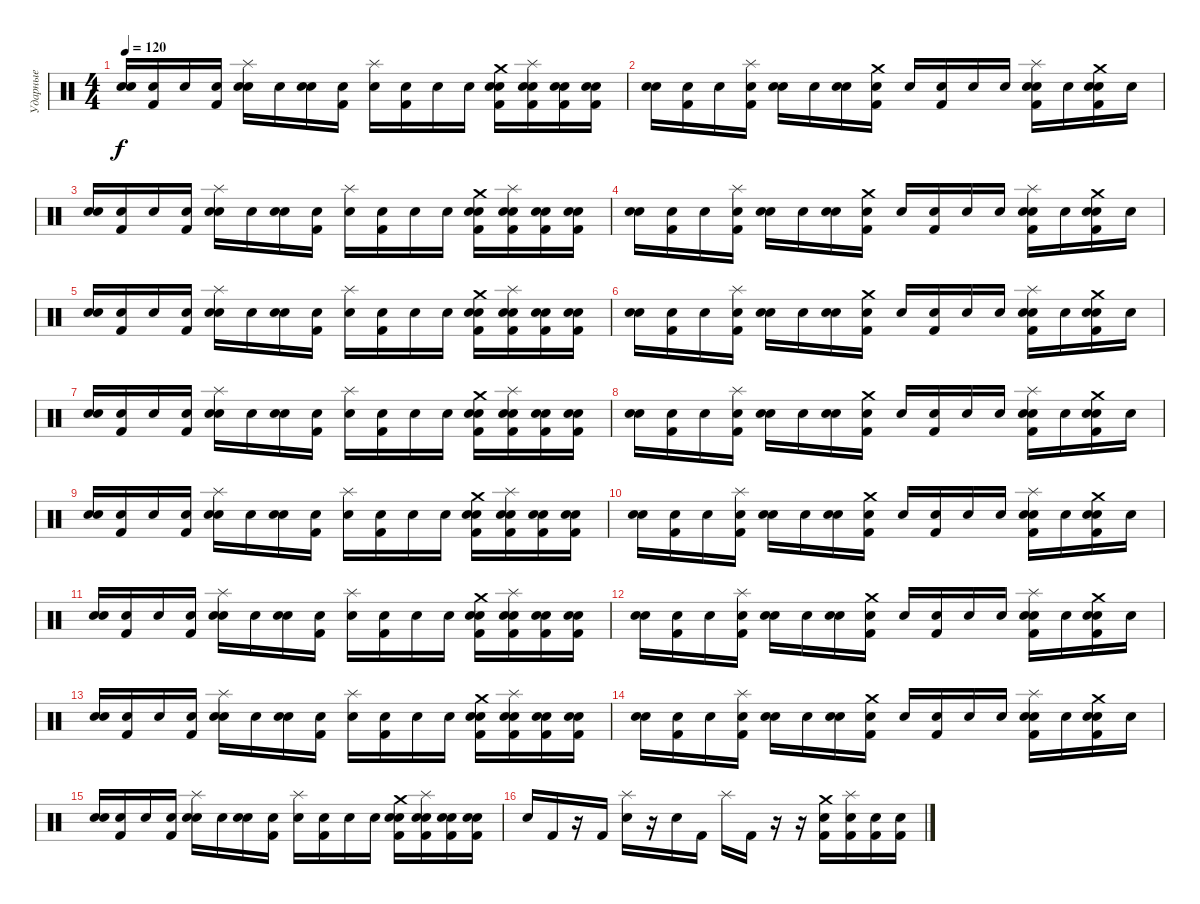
\track ("Ударные" "Ударные") {instrument percussion}
\staff {score}
\articulation defaults
\ts (4 4)
\tempo 120
\clef neutral
\ks c
("Snare (hit)" "Electric Snare (hit)").16{dy f} ("Snare (hit)" "Kick (hit) 2").16 "Snare (hit)".16 ("Snare (hit)" "Kick (hit) 2").16 ("Splash (hit)" "Snare (hit)" "Electric Snare (hit)").16 "Snare (hit)".16 ("Snare (hit)" "Electric Snare (hit)").16 ("Snare (hit)" "Kick (hit) 2").16 ("Splash (hit)" "Snare (hit)").16 ("Snare (hit)" "Kick (hit) 2").16 "Snare (hit)".16 "Snare (hit)".16 ("Crash medium (hit)" "Snare (hit)" "Electric Snare (hit)" "Kick (hit) 2").16 ("Splash (hit)" "Snare (hit)" "Electric Snare (hit)" "Kick (hit) 2").16 ("Snare (hit)" "Electric Snare (hit)" "Kick (hit) 2").16 ("Snare (hit)" "Electric Snare (hit)" "Kick (hit) 2").16 |
("Snare (hit)" "Electric Snare (hit)").16 ("Snare (hit)" "Kick (hit) 2").16 "Snare (hit)".16 ("Splash (hit)" "Snare (hit)" "Kick (hit) 2").16 ("Snare (hit)" "Electric Snare (hit)").16 "Snare (hit)".16 ("Snare (hit)" "Electric Snare (hit)").16 ("Crash medium (hit)" "Snare (hit)" "Kick (hit) 2").16 "Snare (hit)".16 ("Snare (hit)" "Kick (hit) 2").16 "Snare (hit)".16 "Snare (hit)".16 ("Splash (hit)" "Snare (hit)" "Electric Snare (hit)" "Kick (hit) 2").16 "Snare (hit)".16 ("Crash medium (hit)" "Snare (hit)" "Electric Snare (hit)" "Kick (hit) 2").16 "Snare (hit)".16 |
("Snare (hit)" "Electric Snare (hit)").16 ("Snare (hit)" "Kick (hit) 2").16 "Snare (hit)".16 ("Snare (hit)" "Kick (hit) 2").16 ("Splash (hit)" "Snare (hit)" "Electric Snare (hit)").16 "Snare (hit)".16 ("Snare (hit)" "Electric Snare (hit)").16 ("Snare (hit)" "Kick (hit) 2").16 ("Splash (hit)" "Snare (hit)").16 ("Snare (hit)" "Kick (hit) 2").16 "Snare (hit)".16 "Snare (hit)".16 ("Crash medium (hit)" "Snare (hit)" "Electric Snare (hit)" "Kick (hit) 2").16 ("Splash (hit)" "Snare (hit)" "Electric Snare (hit)" "Kick (hit) 2").16 ("Snare (hit)" "Electric Snare (hit)" "Kick (hit) 2").16 ("Snare (hit)" "Electric Snare (hit)" "Kick (hit) 2").16 |
("Snare (hit)" "Electric Snare (hit)").16 ("Snare (hit)" "Kick (hit) 2").16 "Snare (hit)".16 ("Splash (hit)" "Snare (hit)" "Kick (hit) 2").16 ("Snare (hit)" "Electric Snare (hit)").16 "Snare (hit)".16 ("Snare (hit)" "Electric Snare (hit)").16 ("Crash medium (hit)" "Snare (hit)" "Kick (hit) 2").16 "Snare (hit)".16 ("Snare (hit)" "Kick (hit) 2").16 "Snare (hit)".16 "Snare (hit)".16 ("Splash (hit)" "Snare (hit)" "Electric Snare (hit)" "Kick (hit) 2").16 "Snare (hit)".16 ("Crash medium (hit)" "Snare (hit)" "Electric Snare (hit)" "Kick (hit) 2").16 "Snare (hit)".16 |
("Snare (hit)" "Electric Snare (hit)").16 ("Snare (hit)" "Kick (hit) 2").16 "Snare (hit)".16 ("Snare (hit)" "Kick (hit) 2").16 ("Splash (hit)" "Snare (hit)" "Electric Snare (hit)").16 "Snare (hit)".16 ("Snare (hit)" "Electric Snare (hit)").16 ("Snare (hit)" "Kick (hit) 2").16 ("Splash (hit)" "Snare (hit)").16 ("Snare (hit)" "Kick (hit) 2").16 "Snare (hit)".16 "Snare (hit)".16 ("Crash medium (hit)" "Snare (hit)" "Electric Snare (hit)" "Kick (hit) 2").16 ("Splash (hit)" "Snare (hit)" "Electric Snare (hit)" "Kick (hit) 2").16 ("Snare (hit)" "Electric Snare (hit)" "Kick (hit) 2").16 ("Snare (hit)" "Electric Snare (hit)" "Kick (hit) 2").16 |
("Snare (hit)" "Electric Snare (hit)").16 ("Snare (hit)" "Kick (hit) 2").16 "Snare (hit)".16 ("Splash (hit)" "Snare (hit)" "Kick (hit) 2").16 ("Snare (hit)" "Electric Snare (hit)").16 "Snare (hit)".16 ("Snare (hit)" "Electric Snare (hit)").16 ("Crash medium (hit)" "Snare (hit)" "Kick (hit) 2").16 "Snare (hit)".16 ("Snare (hit)" "Kick (hit) 2").16 "Snare (hit)".16 "Snare (hit)".16 ("Splash (hit)" "Snare (hit)" "Electric Snare (hit)" "Kick (hit) 2").16 "Snare (hit)".16 ("Crash medium (hit)" "Snare (hit)" "Electric Snare (hit)" "Kick (hit) 2").16 "Snare (hit)".16 |
("Snare (hit)" "Electric Snare (hit)").16 ("Snare (hit)" "Kick (hit) 2").16 "Snare (hit)".16 ("Snare (hit)" "Kick (hit) 2").16 ("Splash (hit)" "Snare (hit)" "Electric Snare (hit)").16 "Snare (hit)".16 ("Snare (hit)" "Electric Snare (hit)").16 ("Snare (hit)" "Kick (hit) 2").16 ("Splash (hit)" "Snare (hit)").16 ("Snare (hit)" "Kick (hit) 2").16 "Snare (hit)".16 "Snare (hit)".16 ("Crash medium (hit)" "Snare (hit)" "Electric Snare (hit)" "Kick (hit) 2").16 ("Splash (hit)" "Snare (hit)" "Electric Snare (hit)" "Kick (hit) 2").16 ("Snare (hit)" "Electric Snare (hit)" "Kick (hit) 2").16 ("Snare (hit)" "Electric Snare (hit)" "Kick (hit) 2").16 |
("Snare (hit)" "Electric Snare (hit)").16 ("Snare (hit)" "Kick (hit) 2").16 "Snare (hit)".16 ("Splash (hit)" "Snare (hit)" "Kick (hit) 2").16 ("Snare (hit)" "Electric Snare (hit)").16 "Snare (hit)".16 ("Snare (hit)" "Electric Snare (hit)").16 ("Crash medium (hit)" "Snare (hit)" "Kick (hit) 2").16 "Snare (hit)".16 ("Snare (hit)" "Kick (hit) 2").16 "Snare (hit)".16 "Snare (hit)".16 ("Splash (hit)" "Snare (hit)" "Electric Snare (hit)" "Kick (hit) 2").16 "Snare (hit)".16 ("Crash medium (hit)" "Snare (hit)" "Electric Snare (hit)" "Kick (hit) 2").16 "Snare (hit)".16 |
("Snare (hit)" "Electric Snare (hit)").16 ("Snare (hit)" "Kick (hit) 2").16 "Snare (hit)".16 ("Snare (hit)" "Kick (hit) 2").16 ("Splash (hit)" "Snare (hit)" "Electric Snare (hit)").16 "Snare (hit)".16 ("Snare (hit)" "Electric Snare (hit)").16 ("Snare (hit)" "Kick (hit) 2").16 ("Splash (hit)" "Snare (hit)").16 ("Snare (hit)" "Kick (hit) 2").16 "Snare (hit)".16 "Snare (hit)".16 ("Crash medium (hit)" "Snare (hit)" "Electric Snare (hit)" "Kick (hit) 2").16 ("Splash (hit)" "Snare (hit)" "Electric Snare (hit)" "Kick (hit) 2").16 ("Snare (hit)" "Electric Snare (hit)" "Kick (hit) 2").16 ("Snare (hit)" "Electric Snare (hit)" "Kick (hit) 2").16 |
("Snare (hit)" "Electric Snare (hit)").16 ("Snare (hit)" "Kick (hit) 2").16 "Snare (hit)".16 ("Splash (hit)" "Snare (hit)" "Kick (hit) 2").16 ("Snare (hit)" "Electric Snare (hit)").16 "Snare (hit)".16 ("Snare (hit)" "Electric Snare (hit)").16 ("Crash medium (hit)" "Snare (hit)" "Kick (hit) 2").16 "Snare (hit)".16 ("Snare (hit)" "Kick (hit) 2").16 "Snare (hit)".16 "Snare (hit)".16 ("Splash (hit)" "Snare (hit)" "Electric Snare (hit)" "Kick (hit) 2").16 "Snare (hit)".16 ("Crash medium (hit)" "Snare (hit)" "Electric Snare (hit)" "Kick (hit) 2").16 "Snare (hit)".16 |
("Snare (hit)" "Electric Snare (hit)").16 ("Snare (hit)" "Kick (hit) 2").16 "Snare (hit)".16 ("Snare (hit)" "Kick (hit) 2").16 ("Splash (hit)" "Snare (hit)" "Electric Snare (hit)").16 "Snare (hit)".16 ("Snare (hit)" "Electric Snare (hit)").16 ("Snare (hit)" "Kick (hit) 2").16 ("Splash (hit)" "Snare (hit)").16 ("Snare (hit)" "Kick (hit) 2").16 "Snare (hit)".16 "Snare (hit)".16 ("Crash medium (hit)" "Snare (hit)" "Electric Snare (hit)" "Kick (hit) 2").16 ("Splash (hit)" "Snare (hit)" "Electric Snare (hit)" "Kick (hit) 2").16 ("Snare (hit)" "Electric Snare (hit)" "Kick (hit) 2").16 ("Snare (hit)" "Electric Snare (hit)" "Kick (hit) 2").16 |
("Snare (hit)" "Electric Snare (hit)").16 ("Snare (hit)" "Kick (hit) 2").16 "Snare (hit)".16 ("Splash (hit)" "Snare (hit)" "Kick (hit) 2").16 ("Snare (hit)" "Electric Snare (hit)").16 "Snare (hit)".16 ("Snare (hit)" "Electric Snare (hit)").16 ("Crash medium (hit)" "Snare (hit)" "Kick (hit) 2").16 "Snare (hit)".16 ("Snare (hit)" "Kick (hit) 2").16 "Snare (hit)".16 "Snare (hit)".16 ("Splash (hit)" "Snare (hit)" "Electric Snare (hit)" "Kick (hit) 2").16 "Snare (hit)".16 ("Crash medium (hit)" "Snare (hit)" "Electric Snare (hit)" "Kick (hit) 2").16 "Snare (hit)".16 |
("Snare (hit)" "Electric Snare (hit)").16 ("Snare (hit)" "Kick (hit) 2").16 "Snare (hit)".16 ("Snare (hit)" "Kick (hit) 2").16 ("Splash (hit)" "Snare (hit)" "Electric Snare (hit)").16 "Snare (hit)".16 ("Snare (hit)" "Electric Snare (hit)").16 ("Snare (hit)" "Kick (hit) 2").16 ("Splash (hit)" "Snare (hit)").16 ("Snare (hit)" "Kick (hit) 2").16 "Snare (hit)".16 "Snare (hit)".16 ("Crash medium (hit)" "Snare (hit)" "Electric Snare (hit)" "Kick (hit) 2").16 ("Splash (hit)" "Snare (hit)" "Electric Snare (hit)" "Kick (hit) 2").16 ("Snare (hit)" "Electric Snare (hit)" "Kick (hit) 2").16 ("Snare (hit)" "Electric Snare (hit)" "Kick (hit) 2").16 |
("Snare (hit)" "Electric Snare (hit)").16 ("Snare (hit)" "Kick (hit) 2").16 "Snare (hit)".16 ("Splash (hit)" "Snare (hit)" "Kick (hit) 2").16 ("Snare (hit)" "Electric Snare (hit)").16 "Snare (hit)".16 ("Snare (hit)" "Electric Snare (hit)").16 ("Crash medium (hit)" "Snare (hit)" "Kick (hit) 2").16 "Snare (hit)".16 ("Snare (hit)" "Kick (hit) 2").16 "Snare (hit)".16 "Snare (hit)".16 ("Splash (hit)" "Snare (hit)" "Electric Snare (hit)" "Kick (hit) 2").16 "Snare (hit)".16 ("Crash medium (hit)" "Snare (hit)" "Electric Snare (hit)" "Kick (hit) 2").16 "Snare (hit)".16 |
("Snare (hit)" "Electric Snare (hit)").16 ("Snare (hit)" "Kick (hit) 2").16 "Snare (hit)".16 ("Snare (hit)" "Kick (hit) 2").16 ("Splash (hit)" "Snare (hit)" "Electric Snare (hit)").16 "Snare (hit)".16 ("Snare (hit)" "Electric Snare (hit)").16 ("Snare (hit)" "Kick (hit) 2").16 ("Splash (hit)" "Snare (hit)").16 ("Snare (hit)" "Kick (hit) 2").16 "Snare (hit)".16 "Snare (hit)".16 ("Crash medium (hit)" "Snare (hit)" "Electric Snare (hit)" "Kick (hit) 2").16 ("Splash (hit)" "Snare (hit)" "Electric Snare (hit)" "Kick (hit) 2").16 ("Snare (hit)" "Electric Snare (hit)" "Kick (hit) 2").16 ("Snare (hit)" "Electric Snare (hit)" "Kick (hit) 2").16 |
"Electric Snare (hit)".16 "Kick (hit) 2".16 r.16 "Kick (hit) 2".16 ("Splash (hit)" "Electric Snare (hit)").16 r.16 "Electric Snare (hit)".16 "Kick (hit) 2".16 "Splash (hit)".16 "Kick (hit) 2".16 r.16 r.16 ("Crash medium (hit)" "Electric Snare (hit)" "Kick (hit) 2").16 ("Splash (hit)" "Electric Snare (hit)" "Kick (hit) 2").16 ("Electric Snare (hit)" "Kick (hit) 2").16 ("Electric Snare (hit)" "Kick (hit) 2").16
